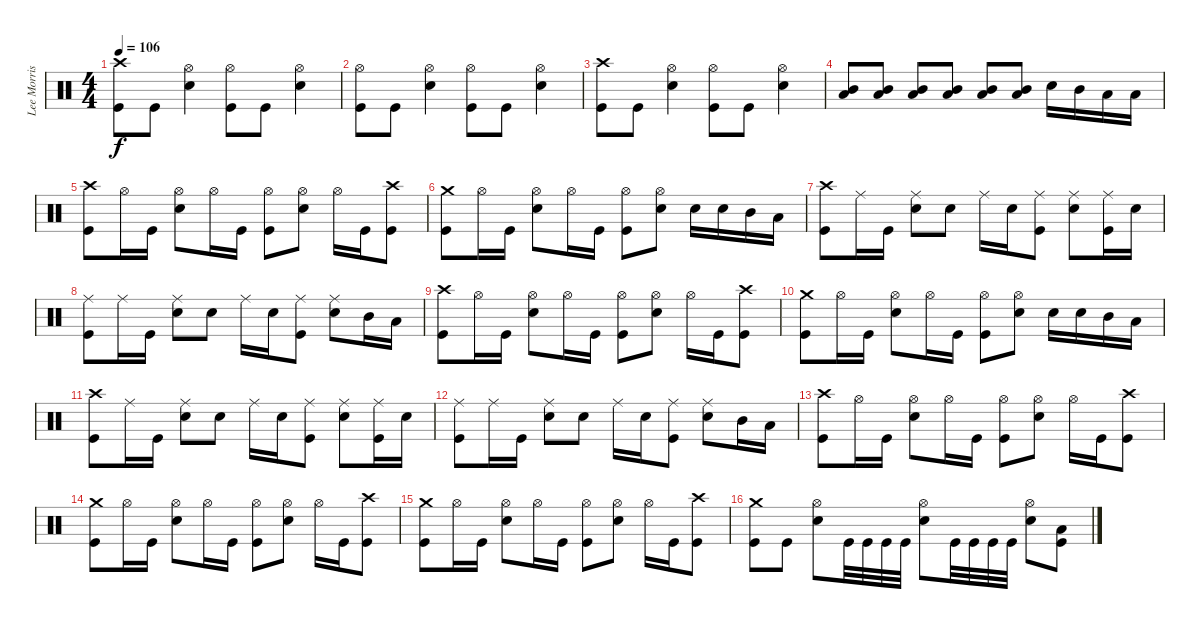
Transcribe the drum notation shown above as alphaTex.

\track ("Lee Morris" "Lee Morris") {instrument percussion}
\staff {score}
\articulation defaults
\ts (4 4)
\tempo 106
\clef neutral
\ks c
("Kick (hit)" "Crash high (hit)").8{dy f} "Kick (hit)".8 ("Snare (hit) 2" "Hi-Hat (open)").4 ("Kick (hit)" "Hi-Hat (open)").8 "Kick (hit)".8 ("Snare (hit) 2" "Hi-Hat (open)").4 |
("Kick (hit)" "Hi-Hat (open)").8 "Kick (hit)".8 ("Snare (hit) 2" "Hi-Hat (open)").4 ("Kick (hit)" "Hi-Hat (open)").8 "Kick (hit)".8 ("Snare (hit) 2" "Hi-Hat (open)").4 |
("Kick (hit)" "Crash high (hit)").8 "Kick (hit)".8 ("Snare (hit) 2" "Hi-Hat (open)").4 ("Kick (hit)" "Hi-Hat (open)").8 "Kick (hit)".8 ("Snare (hit) 2" "Hi-Hat (open)").4 |
("Mid Tom (hit)" "Low Tom (hit)").8 ("Mid Tom (hit)" "Low Tom (hit)").8 ("Mid Tom (hit)" "Low Tom (hit)").8 ("Mid Tom (hit)" "Low Tom (hit)").8 ("Mid Tom (hit)" "Low Tom (hit)").8 ("Mid Tom (hit)" "Low Tom (hit)").8 "Snare (hit) 2".16 "Mid Tom (hit)".16 "Low Tom (hit)".16 "Low Tom (hit)".16 |
("Kick (hit)" "Crash high (hit)").8 "Hi-Hat (open)".16 "Kick (hit)".16 ("Snare (hit) 2" "Hi-Hat (open)").8 "Hi-Hat (open)".16 "Kick (hit)".16 ("Kick (hit)" "Hi-Hat (open)").8 ("Snare (hit) 2" "Hi-Hat (open)").8 "Hi-Hat (open)".16 "Kick (hit)".16 ("Kick (hit)" "Crash high (hit)").8 |
("Kick (hit)" "Crash medium (hit)").8 "Hi-Hat (open)".16 "Kick (hit)".16 ("Snare (hit) 2" "Hi-Hat (open)").8 "Hi-Hat (open)".16 "Kick (hit)".16 ("Kick (hit)" "Hi-Hat (open)").8 ("Snare (hit) 2" "Hi-Hat (open)").8 "Snare (hit) 2".16 "Snare (hit) 2".16 "Mid Tom (hit)".16 "Low Tom (hit)".16 |
("Kick (hit)" "Crash high (hit)").8 "Ride (middle)".16 "Kick (hit)".16 ("Snare (hit) 2" "Ride (middle)").8 "Snare (hit) 2".8 "Ride (middle)".16 "Snare (hit) 2".16 ("Kick (hit)" "Ride (middle)").8 ("Snare (hit) 2" "Ride (middle)").8 ("Kick (hit)" "Ride (middle)").16 "Snare (hit) 2".16 |
("Kick (hit)" "Ride (middle)").8 "Ride (middle)".16 "Kick (hit)".16 ("Snare (hit) 2" "Ride (middle)").8 "Snare (hit) 2".8 "Ride (middle)".16 "Snare (hit) 2".16 ("Kick (hit)" "Ride (middle)").8 ("Snare (hit) 2" "Ride (middle)").8 "Mid Tom (hit)".16 "Low Tom (hit)".16 |
("Kick (hit)" "Crash high (hit)").8 "Hi-Hat (open)".16 "Kick (hit)".16 ("Snare (hit) 2" "Hi-Hat (open)").8 "Hi-Hat (open)".16 "Kick (hit)".16 ("Kick (hit)" "Hi-Hat (open)").8 ("Snare (hit) 2" "Hi-Hat (open)").8 "Hi-Hat (open)".16 "Kick (hit)".16 ("Kick (hit)" "Crash high (hit)").8 |
("Kick (hit)" "Crash medium (hit)").8 "Hi-Hat (open)".16 "Kick (hit)".16 ("Snare (hit) 2" "Hi-Hat (open)").8 "Hi-Hat (open)".16 "Kick (hit)".16 ("Kick (hit)" "Hi-Hat (open)").8 ("Snare (hit) 2" "Hi-Hat (open)").8 "Snare (hit) 2".16 "Snare (hit) 2".16 "Mid Tom (hit)".16 "Low Tom (hit)".16 |
("Kick (hit)" "Crash high (hit)").8 "Ride (middle)".16 "Kick (hit)".16 ("Snare (hit) 2" "Ride (middle)").8 "Snare (hit) 2".8 "Ride (middle)".16 "Snare (hit) 2".16 ("Kick (hit)" "Ride (middle)").8 ("Snare (hit) 2" "Ride (middle)").8 ("Kick (hit)" "Ride (middle)").16 "Snare (hit) 2".16 |
("Kick (hit)" "Ride (middle)").8 "Ride (middle)".16 "Kick (hit)".16 ("Snare (hit) 2" "Ride (middle)").8 "Snare (hit) 2".8 "Ride (middle)".16 "Snare (hit) 2".16 ("Kick (hit)" "Ride (middle)").8 ("Snare (hit) 2" "Ride (middle)").8 "Mid Tom (hit)".16 "Low Tom (hit)".16 |
("Kick (hit)" "Crash high (hit)").8 "Hi-Hat (open)".16 "Kick (hit)".16 ("Snare (hit) 2" "Hi-Hat (open)").8 "Hi-Hat (open)".16 "Kick (hit)".16 ("Kick (hit)" "Hi-Hat (open)").8 ("Snare (hit) 2" "Hi-Hat (open)").8 "Hi-Hat (open)".16 "Kick (hit)".16 ("Kick (hit)" "Crash high (hit)").8 |
("Kick (hit)" "Crash medium (hit)").8 "Hi-Hat (open)".16 "Kick (hit)".16 ("Snare (hit) 2" "Hi-Hat (open)").8 "Hi-Hat (open)".16 "Kick (hit)".16 ("Kick (hit)" "Hi-Hat (open)").8 ("Snare (hit) 2" "Hi-Hat (open)").8 "Hi-Hat (open)".16 "Kick (hit)".16 ("Kick (hit)" "Crash high (hit)").8 |
("Kick (hit)" "Crash medium (hit)").8 "Hi-Hat (open)".16 "Kick (hit)".16 ("Snare (hit) 2" "Hi-Hat (open)").8 "Hi-Hat (open)".16 "Kick (hit)".16 ("Kick (hit)" "Hi-Hat (open)").8 ("Snare (hit) 2" "Hi-Hat (open)").8 "Hi-Hat (open)".16 "Kick (hit)".16 ("Kick (hit)" "Crash high (hit)").8 |
("Kick (hit)" "Crash medium (hit)").8 "Kick (hit)".8 ("Snare (hit) 2" "Hi-Hat (open)").8 "Kick (hit)".32 "Kick (hit)".32 "Kick (hit)".32 "Kick (hit)".32 ("Snare (hit) 2" "Hi-Hat (open)").8 "Kick (hit)".32 "Kick (hit)".32 "Kick (hit)".32 "Kick (hit)".32 ("Snare (hit) 2" "Hi-Hat (open)").8 ("Kick (hit)" "Low Tom (hit)").8
